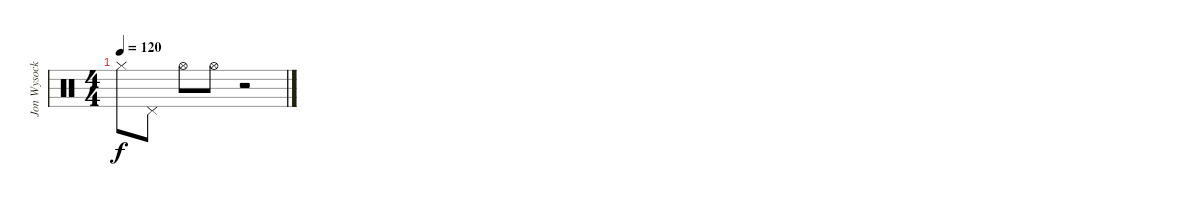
\track ("Jon Wysocki cymbals" "Jon Wysock") {instrument percussion}
\staff {score}
\articulation defaults
\ts (4 4)
\tempo 120
\clef neutral
\ks c "Hi-Hat (closed)".8{dy f} "Pedal Hi-Hat (hit)".8 "Hi-Hat (open)".8 "Hi-Hat (open)".8
r.2
